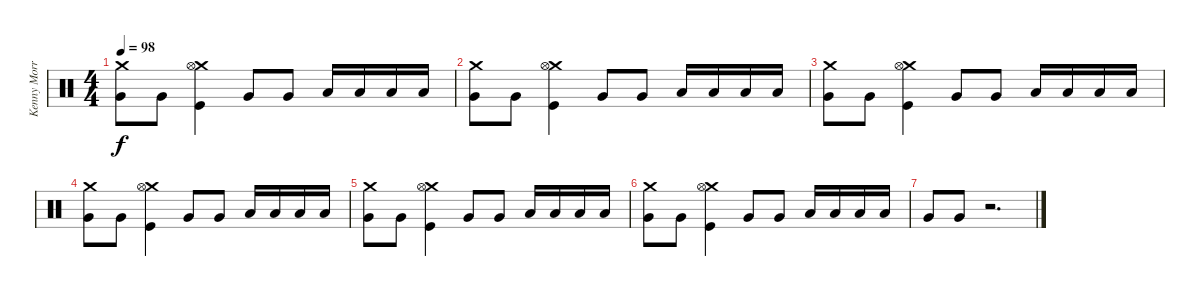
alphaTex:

\track ("Kenny Morris" "Kenny Morr") {instrument percussion}
\staff {score}
\articulation defaults
\ts (4 4)
\tempo 98
\clef neutral
\ks c
("Crash medium (hit)" "Very Low Tom (hit)").8{dy f} "Very Low Tom (hit)".8 ("Crash medium (hit)" "Hi-Hat (open)" "Kick (hit)").4 "Very Low Tom (hit)".8 "Very Low Tom (hit)".8 "Low Tom (hit)".16 "Low Tom (hit)".16 "Low Tom (hit)".16 "Low Tom (hit)".16 |
("Crash medium (hit)" "Very Low Tom (hit)").8 "Very Low Tom (hit)".8 ("Crash medium (hit)" "Hi-Hat (open)" "Kick (hit)").4 "Very Low Tom (hit)".8 "Very Low Tom (hit)".8 "Low Tom (hit)".16 "Low Tom (hit)".16 "Low Tom (hit)".16 "Low Tom (hit)".16 |
("Crash medium (hit)" "Very Low Tom (hit)").8 "Very Low Tom (hit)".8 ("Crash medium (hit)" "Hi-Hat (open)" "Kick (hit)").4 "Very Low Tom (hit)".8 "Very Low Tom (hit)".8 "Low Tom (hit)".16 "Low Tom (hit)".16 "Low Tom (hit)".16 "Low Tom (hit)".16 |
("Crash medium (hit)" "Very Low Tom (hit)").8 "Very Low Tom (hit)".8 ("Crash medium (hit)" "Hi-Hat (open)" "Kick (hit)").4 "Very Low Tom (hit)".8 "Very Low Tom (hit)".8 "Low Tom (hit)".16 "Low Tom (hit)".16 "Low Tom (hit)".16 "Low Tom (hit)".16 |
("Crash medium (hit)" "Very Low Tom (hit)").8 "Very Low Tom (hit)".8 ("Crash medium (hit)" "Hi-Hat (open)" "Kick (hit)").4 "Very Low Tom (hit)".8 "Very Low Tom (hit)".8 "Low Tom (hit)".16 "Low Tom (hit)".16 "Low Tom (hit)".16 "Low Tom (hit)".16 |
("Crash medium (hit)" "Very Low Tom (hit)").8 "Very Low Tom (hit)".8 ("Crash medium (hit)" "Hi-Hat (open)" "Kick (hit)").4 "Very Low Tom (hit)".8 "Very Low Tom (hit)".8 "Low Tom (hit)".16 "Low Tom (hit)".16 "Low Tom (hit)".16 "Low Tom (hit)".16 |
"Very Low Tom (hit)".8 "Very Low Tom (hit)".8 r.2{d}
